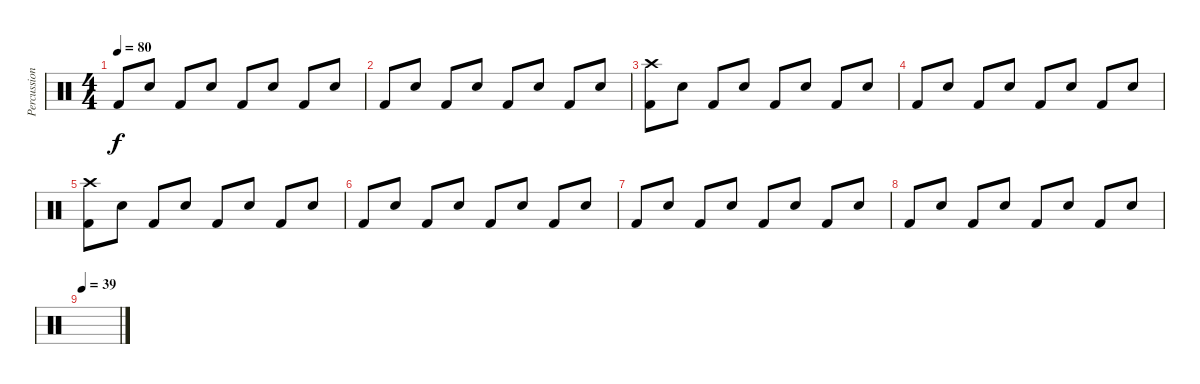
\track ("Percussion" "Percussion") {instrument percussion}
\staff {score}
\articulation defaults
\ts (4 4)
\tempo 80
\clef neutral
\ks c "Kick (hit) 2".8{dy f} "Electric Snare (hit)".8 "Kick (hit) 2".8 "Electric Snare (hit)".8 "Kick (hit) 2".8 "Electric Snare (hit)".8 "Kick (hit) 2".8 "Electric Snare (hit)".8
|
"Kick (hit) 2".8 "Electric Snare (hit)".8 "Kick (hit) 2".8 "Electric Snare (hit)".8 "Kick (hit) 2".8 "Electric Snare (hit)".8 "Kick (hit) 2".8 "Electric Snare (hit)".8 |
("Crash high (hit)" "Kick (hit) 2").8 "Electric Snare (hit)".8 "Kick (hit) 2".8 "Electric Snare (hit)".8 "Kick (hit) 2".8 "Electric Snare (hit)".8 "Kick (hit) 2".8 "Electric Snare (hit)".8 |
"Kick (hit) 2".8 "Electric Snare (hit)".8 "Kick (hit) 2".8 "Electric Snare (hit)".8 "Kick (hit) 2".8 "Electric Snare (hit)".8 "Kick (hit) 2".8 "Electric Snare (hit)".8 |
("Crash high (hit)" "Kick (hit) 2").8 "Electric Snare (hit)".8 "Kick (hit) 2".8 "Electric Snare (hit)".8 "Kick (hit) 2".8 "Electric Snare (hit)".8 "Kick (hit) 2".8 "Electric Snare (hit)".8 |
"Kick (hit) 2".8 "Electric Snare (hit)".8 "Kick (hit) 2".8 "Electric Snare (hit)".8 "Kick (hit) 2".8 "Electric Snare (hit)".8 "Kick (hit) 2".8 "Electric Snare (hit)".8 |
"Kick (hit) 2".8 "Electric Snare (hit)".8 "Kick (hit) 2".8 "Electric Snare (hit)".8 "Kick (hit) 2".8 "Electric Snare (hit)".8 "Kick (hit) 2".8 "Electric Snare (hit)".8 |
"Kick (hit) 2".8 "Electric Snare (hit)".8 "Kick (hit) 2".8 "Electric Snare (hit)".8 "Kick (hit) 2".8 "Electric Snare (hit)".8 "Kick (hit) 2".8 "Electric Snare (hit)".8 |
\tempo 39
